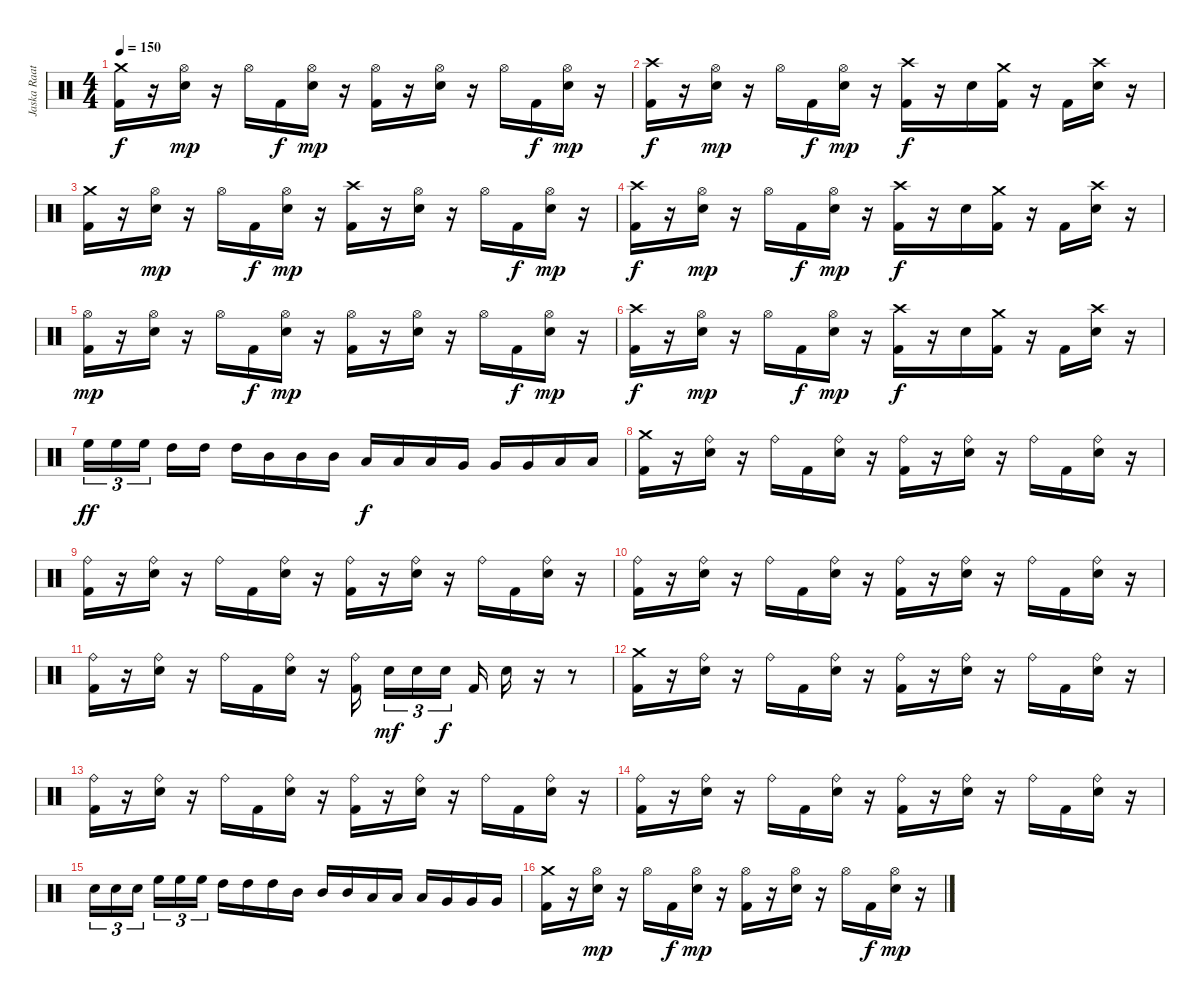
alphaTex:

\track ("Jaska Raatikainen" "Jaska Raat") {instrument percussion}
\staff {score}
\articulation defaults
\ts (4 4)
\tempo 150
\clef neutral
\ks c
("Crash medium (hit)" "Kick (hit) 2").16{dy f} r.16 ("Hi-Hat (open)" "Electric Snare (hit)").16{dy mp} r.16 "Hi-Hat (open)".16 "Kick (hit) 2".16{dy f} ("Hi-Hat (open)" "Electric Snare (hit)").16{dy mp} r.16 ("Hi-Hat (open)" "Kick (hit) 2").16 r.16 ("Hi-Hat (open)" "Electric Snare (hit)").16 r.16 "Hi-Hat (open)".16 "Kick (hit) 2".16{dy f} ("Hi-Hat (open)" "Electric Snare (hit)").16{dy mp} r.16 |
("Crash high (hit)" "Kick (hit) 2").16{dy f} r.16 ("Hi-Hat (open)" "Electric Snare (hit)").16{dy mp} r.16 "Hi-Hat (open)".16 "Kick (hit) 2".16{dy f} ("Hi-Hat (open)" "Electric Snare (hit)").16{dy mp} r.16 ("Crash high (hit)" "Kick (hit) 2").16{dy f} r.16 "Electric Snare (hit)".16 ("Crash medium (hit)" "Kick (hit) 2").16 r.16 "Kick (hit) 2".16 ("Crash high (hit)" "Electric Snare (hit)").16 r.16 |
("Crash medium (hit)" "Kick (hit) 2").16 r.16 ("Hi-Hat (open)" "Electric Snare (hit)").16{dy mp} r.16 "Hi-Hat (open)".16 "Kick (hit) 2".16{dy f} ("Hi-Hat (open)" "Electric Snare (hit)").16{dy mp} r.16 ("Crash high (hit)" "Kick (hit) 2").16 r.16 ("Hi-Hat (open)" "Electric Snare (hit)").16 r.16 "Hi-Hat (open)".16 "Kick (hit) 2".16{dy f} ("Hi-Hat (open)" "Electric Snare (hit)").16{dy mp} r.16 |
("Crash high (hit)" "Kick (hit) 2").16{dy f} r.16 ("Hi-Hat (open)" "Electric Snare (hit)").16{dy mp} r.16 "Hi-Hat (open)".16 "Kick (hit) 2".16{dy f} ("Hi-Hat (open)" "Electric Snare (hit)").16{dy mp} r.16 ("Crash high (hit)" "Kick (hit) 2").16{dy f} r.16 "Electric Snare (hit)".16 ("Crash medium (hit)" "Kick (hit) 2").16 r.16 "Kick (hit) 2".16 ("Crash high (hit)" "Electric Snare (hit)").16 r.16 |
("Hi-Hat (open)" "Kick (hit) 2").16{dy mp} r.16 ("Hi-Hat (open)" "Electric Snare (hit)").16 r.16 "Hi-Hat (open)".16 "Kick (hit) 2".16{dy f} ("Hi-Hat (open)" "Electric Snare (hit)").16{dy mp} r.16 ("Hi-Hat (open)" "Kick (hit) 2").16 r.16 ("Hi-Hat (open)" "Electric Snare (hit)").16 r.16 "Hi-Hat (open)".16 "Kick (hit) 2".16{dy f} ("Hi-Hat (open)" "Electric Snare (hit)").16{dy mp} r.16 |
("Crash high (hit)" "Kick (hit) 2").16{dy f} r.16 ("Hi-Hat (open)" "Electric Snare (hit)").16{dy mp} r.16 "Hi-Hat (open)".16 "Kick (hit) 2".16{dy f} ("Hi-Hat (open)" "Electric Snare (hit)").16{dy mp} r.16 ("Crash high (hit)" "Kick (hit) 2").16{dy f} r.16 "Electric Snare (hit)".16 ("Crash medium (hit)" "Kick (hit) 2").16 r.16 "Kick (hit) 2".16 ("Crash high (hit)" "Electric Snare (hit)").16 r.16 |
"High Floor Tom (hit)".16{tu (3 2) dy ff} "High Floor Tom (hit)".16{tu (3 2)} "High Floor Tom (hit)".16{tu (3 2)} "High Tom (hit)".16 "High Tom (hit)".16 "High Tom (hit)".16 "Mid Tom (hit)".16 "Mid Tom (hit)".16 "Mid Tom (hit)".16 "Low Tom (hit)".16{dy f} "Low Tom (hit)".16 "Low Tom (hit)".16 "Very Low Tom (hit)".16 "Very Low Tom (hit)".16 "Very Low Tom (hit)".16 "Low Floor Tom (hit)".16 "Low Floor Tom (hit)".16 |
("Crash medium (hit)" "Kick (hit) 2").16 r.16 ("Ride (bell)" "Electric Snare (hit)").16 r.16 "Ride (bell)".16 "Kick (hit) 2".16 ("Ride (bell)" "Electric Snare (hit)").16 r.16 ("Ride (bell)" "Kick (hit) 2").16 r.16 ("Ride (bell)" "Electric Snare (hit)").16 r.16 "Ride (bell)".16 "Kick (hit) 2".16 ("Ride (bell)" "Electric Snare (hit)").16 r.16 |
("Ride (bell)" "Kick (hit) 2").16 r.16 ("Ride (bell)" "Electric Snare (hit)").16 r.16 "Ride (bell)".16 "Kick (hit) 2".16 ("Ride (bell)" "Electric Snare (hit)").16 r.16 ("Ride (bell)" "Kick (hit) 2").16 r.16 ("Ride (bell)" "Electric Snare (hit)").16 r.16 "Ride (bell)".16 "Kick (hit) 2".16 ("Ride (bell)" "Electric Snare (hit)").16 r.16 |
("Ride (bell)" "Kick (hit) 2").16 r.16 ("Ride (bell)" "Electric Snare (hit)").16 r.16 "Ride (bell)".16 "Kick (hit) 2".16 ("Ride (bell)" "Electric Snare (hit)").16 r.16 ("Ride (bell)" "Kick (hit) 2").16 r.16 ("Ride (bell)" "Electric Snare (hit)").16 r.16 "Ride (bell)".16 "Kick (hit) 2".16 ("Ride (bell)" "Electric Snare (hit)").16 r.16 |
("Ride (bell)" "Kick (hit) 2").16 r.16 ("Ride (bell)" "Electric Snare (hit)").16 r.16 "Ride (bell)".16 "Kick (hit) 2".16 ("Ride (bell)" "Electric Snare (hit)").16 r.16 ("Ride (bell)" "Kick (hit) 2").16 "Electric Snare (hit)".16{tu (3 2) dy mf} "Electric Snare (hit)".16{tu (3 2)} "Electric Snare (hit)".16{tu (3 2) dy f} "Kick (hit) 2".16 "Electric Snare (hit)".16 r.16 r.8 |
("Crash medium (hit)" "Kick (hit) 2").16 r.16 ("Ride (bell)" "Electric Snare (hit)").16 r.16 "Ride (bell)".16 "Kick (hit) 2".16 ("Ride (bell)" "Electric Snare (hit)").16 r.16 ("Ride (bell)" "Kick (hit) 2").16 r.16 ("Ride (bell)" "Electric Snare (hit)").16 r.16 "Ride (bell)".16 "Kick (hit) 2".16 ("Ride (bell)" "Electric Snare (hit)").16 r.16 |
("Ride (bell)" "Kick (hit) 2").16 r.16 ("Ride (bell)" "Electric Snare (hit)").16 r.16 "Ride (bell)".16 "Kick (hit) 2".16 ("Ride (bell)" "Electric Snare (hit)").16 r.16 ("Ride (bell)" "Kick (hit) 2").16 r.16 ("Ride (bell)" "Electric Snare (hit)").16 r.16 "Ride (bell)".16 "Kick (hit) 2".16 ("Ride (bell)" "Electric Snare (hit)").16 r.16 |
("Ride (bell)" "Kick (hit) 2").16 r.16 ("Ride (bell)" "Electric Snare (hit)").16 r.16 "Ride (bell)".16 "Kick (hit) 2".16 ("Ride (bell)" "Electric Snare (hit)").16 r.16 ("Ride (bell)" "Kick (hit) 2").16 r.16 ("Ride (bell)" "Electric Snare (hit)").16 r.16 "Ride (bell)".16 "Kick (hit) 2".16 ("Ride (bell)" "Electric Snare (hit)").16 r.16 |
"Electric Snare (hit)".16{tu (3 2)} "Electric Snare (hit)".16{tu (3 2)} "Electric Snare (hit)".16{tu (3 2)} "High Floor Tom (hit)".16{tu (3 2)} "High Floor Tom (hit)".16{tu (3 2)} "High Floor Tom (hit)".16{tu (3 2)} "High Tom (hit)".16 "High Tom (hit)".16 "High Tom (hit)".16 "Mid Tom (hit)".16 "Mid Tom (hit)".16 "Mid Tom (hit)".16 "Low Tom (hit)".16 "Low Tom (hit)".16 "Low Tom (hit)".16 "Very Low Tom (hit)".16 "Very Low Tom (hit)".16 "Very Low Tom (hit)".16 |
("Crash medium (hit)" "Kick (hit) 2").16 r.16 ("Hi-Hat (open)" "Electric Snare (hit)").16{dy mp} r.16 "Hi-Hat (open)".16 "Kick (hit) 2".16{dy f} ("Hi-Hat (open)" "Electric Snare (hit)").16{dy mp} r.16 ("Hi-Hat (open)" "Kick (hit) 2").16 r.16 ("Hi-Hat (open)" "Electric Snare (hit)").16 r.16 "Hi-Hat (open)".16 "Kick (hit) 2".16{dy f} ("Hi-Hat (open)" "Electric Snare (hit)").16{dy mp} r.16
